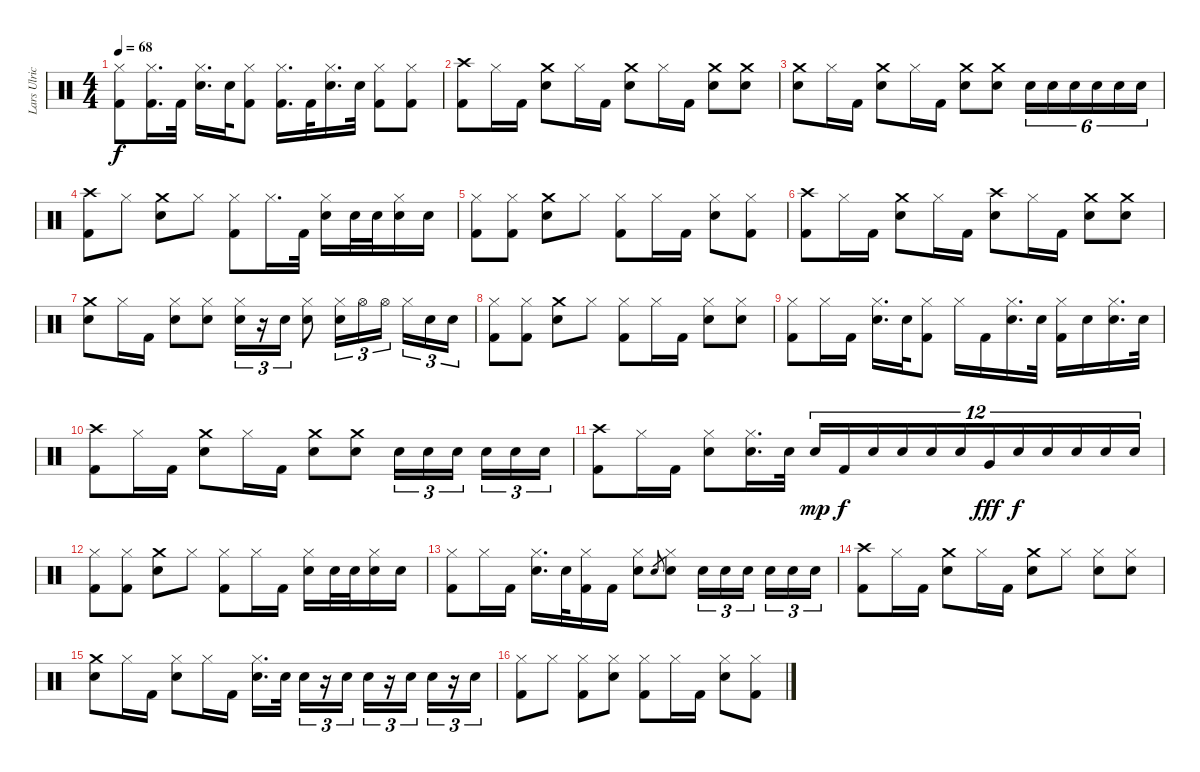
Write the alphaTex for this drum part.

\track ("Lars Ulrich" "Lars Ulric") {instrument percussion}
\staff {score}
\articulation defaults
\ts (4 4)
\tempo 68
\clef neutral
\ks c
("Hi-Hat (closed)" "Kick (hit) 2").8{dy f} ("Hi-Hat (closed)" "Kick (hit) 2").16{d} "Kick (hit) 2".32 ("Hi-Hat (closed)" "Electric Snare (hit)").16{d} "Electric Snare (hit)".32 ("Hi-Hat (closed)" "Kick (hit) 2").8 ("Hi-Hat (closed)" "Kick (hit) 2").16{d} "Kick (hit) 2".32 ("Hi-Hat (closed)" "Electric Snare (hit)").16{d} "Electric Snare (hit)".32 ("Hi-Hat (closed)" "Kick (hit) 2").8 ("Hi-Hat (closed)" "Kick (hit) 2").8 |
("Crash high (hit)" "Kick (hit) 2").8 "Hi-Hat (closed)".16 "Kick (hit) 2".16 ("Crash medium (hit)" "Electric Snare (hit)").8 "Hi-Hat (closed)".16 "Kick (hit) 2".16 ("Crash medium (hit)" "Electric Snare (hit)").8 "Hi-Hat (closed)".16 "Kick (hit) 2".16 ("Crash medium (hit)" "Electric Snare (hit)").8 ("Crash medium (hit)" "Electric Snare (hit)").8 |
("Crash medium (hit)" "Electric Snare (hit)").8 "Hi-Hat (closed)".16 "Kick (hit) 2".16 ("Crash medium (hit)" "Electric Snare (hit)").8 "Hi-Hat (closed)".16 "Kick (hit) 2".16 ("Crash medium (hit)" "Electric Snare (hit)").8 ("Crash medium (hit)" "Electric Snare (hit)").8 "Electric Snare (hit)".16{tu (6 4)} "Electric Snare (hit)".16{tu (6 4)} "Electric Snare (hit)".16{tu (6 4)} "Electric Snare (hit)".16{tu (6 4)} "Electric Snare (hit)".16{tu (6 4)} "Electric Snare (hit)".16{tu (6 4)} |
("Crash high (hit)" "Kick (hit) 2").8 "Hi-Hat (closed)".8 ("Crash medium (hit)" "Electric Snare (hit)").8 "Hi-Hat (closed)".8 ("Hi-Hat (closed)" "Kick (hit) 2").8 "Hi-Hat (closed)".16{d} "Kick (hit) 2".32 ("Hi-Hat (closed)" "Electric Snare (hit)").16 "Electric Snare (hit)".32 "Electric Snare (hit)".32 ("Hi-Hat (closed)" "Electric Snare (hit)").16 "Electric Snare (hit)".16 |
("Hi-Hat (closed)" "Kick (hit) 2").8 ("Hi-Hat (closed)" "Kick (hit) 2").8 ("Crash medium (hit)" "Electric Snare (hit)").8 "Hi-Hat (closed)".8 ("Hi-Hat (closed)" "Kick (hit) 2").8 "Hi-Hat (closed)".16 "Kick (hit) 2".16 ("Hi-Hat (closed)" "Electric Snare (hit)").8 ("Hi-Hat (closed)" "Kick (hit) 2").8 |
("Crash high (hit)" "Kick (hit) 2").8 "Hi-Hat (closed)".16 "Kick (hit) 2".16 ("Crash medium (hit)" "Electric Snare (hit)").8 "Hi-Hat (closed)".16 "Kick (hit) 2".16 ("Crash high (hit)" "Electric Snare (hit)").8 "Hi-Hat (closed)".16 "Kick (hit) 2".16 ("Crash medium (hit)" "Electric Snare (hit)").8 ("Crash medium (hit)" "Electric Snare (hit)").8 |
("Crash medium (hit)" "Electric Snare (hit)").8 "Hi-Hat (closed)".16 "Kick (hit) 2".16 ("Hi-Hat (closed)" "Electric Snare (hit)").8 ("Hi-Hat (closed)" "Electric Snare (hit)").8 ("Hi-Hat (closed)" "Electric Snare (hit)").16{tu (3 2)} r.16{tu (3 2)} "Electric Snare (hit)".16{tu (3 2)} ("Hi-Hat (closed)" "Electric Snare (hit)").8 ("Hi-Hat (closed)" "Electric Snare (hit)").16{tu (3 2)} "Hi-Hat (open)".16{tu (3 2)} "Hi-Hat (open)".16{tu (3 2)} "Hi-Hat (closed)".16{tu (3 2)} "Electric Snare (hit)".16{tu (3 2)} "Electric Snare (hit)".16{tu (3 2)} |
("Hi-Hat (closed)" "Kick (hit) 2").8 ("Hi-Hat (closed)" "Kick (hit) 2").8 ("Crash medium (hit)" "Electric Snare (hit)").8 "Hi-Hat (closed)".8 ("Hi-Hat (closed)" "Kick (hit) 2").8 "Hi-Hat (closed)".16 "Kick (hit) 2".16 ("Hi-Hat (closed)" "Electric Snare (hit)").8 ("Hi-Hat (closed)" "Electric Snare (hit)").8 |
("Hi-Hat (closed)" "Kick (hit) 2").8 "Hi-Hat (closed)".16 "Kick (hit) 2".16 ("Hi-Hat (closed)" "Electric Snare (hit)").16{d} "Electric Snare (hit)".32 ("Hi-Hat (closed)" "Kick (hit) 2").8 "Hi-Hat (closed)".16 "Kick (hit) 2".16 ("Hi-Hat (closed)" "Electric Snare (hit)").16{d} "Electric Snare (hit)".32 ("Hi-Hat (closed)" "Kick (hit) 2").16 "Electric Snare (hit)".16 ("Hi-Hat (closed)" "Electric Snare (hit)").16{d} "Electric Snare (hit)".32 |
("Crash high (hit)" "Kick (hit) 2").8 "Hi-Hat (closed)".16 "Kick (hit) 2".16 ("Crash medium (hit)" "Electric Snare (hit)").8 "Hi-Hat (closed)".16 "Kick (hit) 2".16 ("Crash medium (hit)" "Electric Snare (hit)").8 ("Crash medium (hit)" "Electric Snare (hit)").8 "Electric Snare (hit)".16{tu (3 2)} "Electric Snare (hit)".16{tu (3 2)} "Electric Snare (hit)".16{tu (3 2)} "Electric Snare (hit)".16{tu (3 2)} "Electric Snare (hit)".16{tu (3 2)} "Electric Snare (hit)".16{tu (3 2)} |
("Crash high (hit)" "Kick (hit) 2").8 "Hi-Hat (closed)".16 "Kick (hit) 2".16 ("Hi-Hat (closed)" "Electric Snare (hit)").8 ("Hi-Hat (closed)" "Electric Snare (hit)").16{d} "Electric Snare (hit)".32 "Electric Snare (hit)".16{tu (12 8) dy mp} "Kick (hit) 2".16{tu (12 8) dy f} "Electric Snare (hit)".16{tu (12 8)} "Electric Snare (hit)".16{tu (12 8)} "Electric Snare (hit)".16{tu (12 8)} "Electric Snare (hit)".16{tu (12 8)} "Very Low Tom (hit)".16{tu (12 8) dy fff} "Electric Snare (hit)".16{tu (12 8) dy f} "Electric Snare (hit)".16{tu (12 8)} "Electric Snare (hit)".16{tu (12 8)} "Electric Snare (hit)".16{tu (12 8)} "Electric Snare (hit)".16{tu (12 8)} |
("Hi-Hat (closed)" "Kick (hit) 2").8 ("Hi-Hat (closed)" "Kick (hit) 2").8 ("Crash medium (hit)" "Electric Snare (hit)").8 "Hi-Hat (closed)".8 ("Hi-Hat (closed)" "Kick (hit) 2").8 "Hi-Hat (closed)".16 "Kick (hit) 2".16 ("Hi-Hat (closed)" "Electric Snare (hit)").16 "Electric Snare (hit)".32 "Electric Snare (hit)".32 ("Hi-Hat (closed)" "Electric Snare (hit)").16 "Electric Snare (hit)".16 |
("Hi-Hat (closed)" "Kick (hit) 2").8 "Hi-Hat (closed)".16 "Kick (hit) 2".16 ("Hi-Hat (closed)" "Electric Snare (hit)").16{d} "Electric Snare (hit)".32 ("Hi-Hat (closed)" "Kick (hit) 2").16 "Kick (hit) 2".16 ("Hi-Hat (closed)" "Electric Snare (hit)").8 "Electric Snare (hit)".8{gr} ("Hi-Hat (closed)" "Electric Snare (hit)").8 "Electric Snare (hit)".16{tu (3 2)} "Electric Snare (hit)".16{tu (3 2)} "Electric Snare (hit)".16{tu (3 2)} "Electric Snare (hit)".16{tu (3 2)} "Electric Snare (hit)".16{tu (3 2)} "Electric Snare (hit)".16{tu (3 2)} |
("Crash high (hit)" "Kick (hit) 2").8 "Hi-Hat (closed)".16 "Kick (hit) 2".16 ("Crash medium (hit)" "Electric Snare (hit)").8 "Hi-Hat (closed)".16 "Kick (hit) 2".16 ("Crash medium (hit)" "Electric Snare (hit)").8 "Hi-Hat (closed)".8 ("Hi-Hat (closed)" "Electric Snare (hit)").8 ("Hi-Hat (closed)" "Electric Snare (hit)").8 |
("Crash medium (hit)" "Electric Snare (hit)").8 "Hi-Hat (closed)".16 "Kick (hit) 2".16 ("Hi-Hat (closed)" "Electric Snare (hit)").8 "Hi-Hat (closed)".16 "Kick (hit) 2".16 ("Hi-Hat (closed)" "Electric Snare (hit)").16{d} "Electric Snare (hit)".32 "Electric Snare (hit)".16{tu (3 2)} r.16{tu (3 2)} "Electric Snare (hit)".16{tu (3 2)} "Electric Snare (hit)".16{tu (3 2)} r.16{tu (3 2)} "Electric Snare (hit)".16{tu (3 2)} "Electric Snare (hit)".16{tu (3 2)} r.16{tu (3 2)} "Electric Snare (hit)".16{tu (3 2)} |
("Hi-Hat (closed)" "Kick (hit) 2").8 "Hi-Hat (closed)".8 ("Hi-Hat (closed)" "Kick (hit) 2").8 ("Hi-Hat (closed)" "Electric Snare (hit)").8 ("Hi-Hat (closed)" "Kick (hit) 2").8 "Hi-Hat (closed)".16 "Kick (hit) 2".16 ("Hi-Hat (closed)" "Electric Snare (hit)").8 ("Hi-Hat (closed)" "Kick (hit) 2").8
